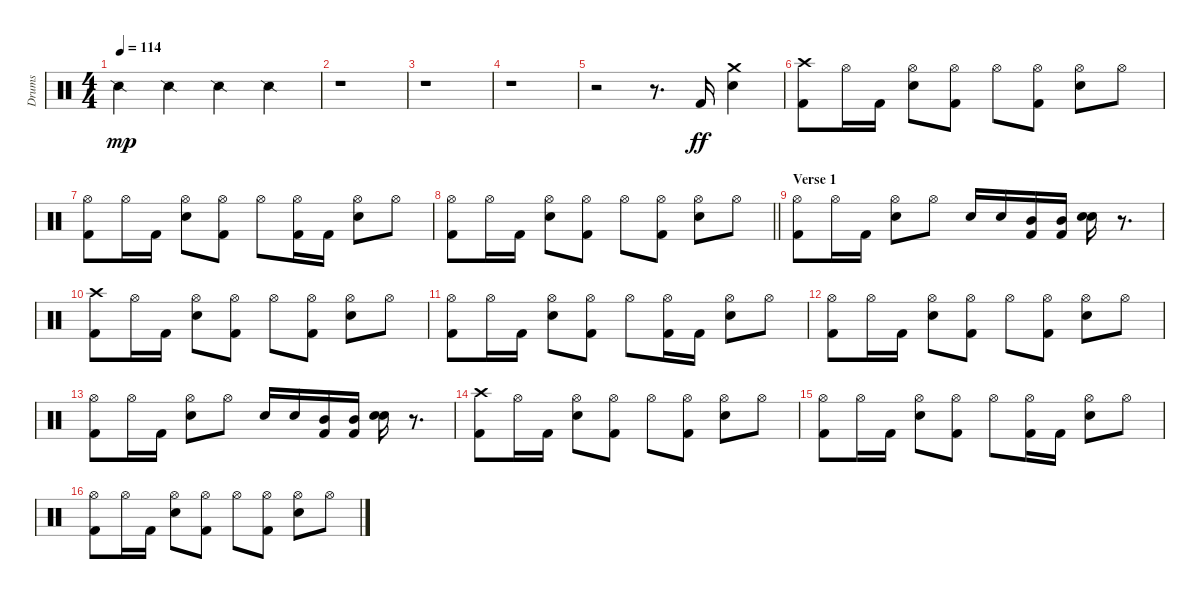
\track ("Drums               " "Drums     ") {instrument percussion}
\staff {score}
\articulation defaults
\ts (4 4)
\tempo 114
\clef neutral
\ks c "Snare (side stick) 2".4{dy mp} "Snare (side stick) 2".4 "Snare (side stick) 2".4 "Snare (side stick) 2".4
|
r.1 |
r.1 |
r.1 |
r.2 r.8{d} "Kick (hit) 2".16{dy ff} ("Electric Snare (hit)" "Crash medium (hit)").4 |
("Kick (hit) 2" "Crash high (hit)").8 "Hi-Hat (open)".16 "Kick (hit) 2".16 ("Hi-Hat (open)" "Electric Snare (hit)").8 ("Kick (hit) 2" "Hi-Hat (open)").8 "Hi-Hat (open)".8 ("Kick (hit) 2" "Hi-Hat (open)").8 ("Hi-Hat (open)" "Electric Snare (hit)").8 "Hi-Hat (open)".8 |
("Kick (hit) 2" "Hi-Hat (open)").8 "Hi-Hat (open)".16 "Kick (hit) 2".16 ("Hi-Hat (open)" "Electric Snare (hit)").8 ("Kick (hit) 2" "Hi-Hat (open)").8 "Hi-Hat (open)".8 ("Kick (hit) 2" "Hi-Hat (open)").16 "Kick (hit) 2".16 ("Hi-Hat (open)" "Electric Snare (hit)").8 "Hi-Hat (open)".8 |
\barLineRight lightlight
("Kick (hit) 2" "Hi-Hat (open)").8 "Hi-Hat (open)".16 "Kick (hit) 2".16 ("Hi-Hat (open)" "Electric Snare (hit)").8 ("Kick (hit) 2" "Hi-Hat (open)").8 "Hi-Hat (open)".8 ("Kick (hit) 2" "Hi-Hat (open)").8 ("Hi-Hat (open)" "Electric Snare (hit)").8 "Hi-Hat (open)".8 |
\section ("" "Verse 1")
("Kick (hit) 2" "Hi-Hat (open)").8 "Hi-Hat (open)".16 "Kick (hit) 2".16 ("Hi-Hat (open)" "Electric Snare (hit)").8 "Hi-Hat (open)".8 "Electric Snare (hit)".16 "Electric Snare (hit)".16 ("Kick (hit) 2" "Mid Tom (hit)").16 ("Kick (hit) 2" "Mid Tom (hit)").16 ("Metronome (bell)" "Electric Snare (hit)").16 r.8{d} |
("Kick (hit) 2" "Crash high (hit)").8 "Hi-Hat (open)".16 "Kick (hit) 2".16 ("Hi-Hat (open)" "Electric Snare (hit)").8 ("Kick (hit) 2" "Hi-Hat (open)").8 "Hi-Hat (open)".8 ("Kick (hit) 2" "Hi-Hat (open)").8 ("Hi-Hat (open)" "Electric Snare (hit)").8 "Hi-Hat (open)".8 |
("Kick (hit) 2" "Hi-Hat (open)").8 "Hi-Hat (open)".16 "Kick (hit) 2".16 ("Hi-Hat (open)" "Electric Snare (hit)").8 ("Kick (hit) 2" "Hi-Hat (open)").8 "Hi-Hat (open)".8 ("Kick (hit) 2" "Hi-Hat (open)").16 "Kick (hit) 2".16 ("Hi-Hat (open)" "Electric Snare (hit)").8 "Hi-Hat (open)".8 |
("Kick (hit) 2" "Hi-Hat (open)").8 "Hi-Hat (open)".16 "Kick (hit) 2".16 ("Hi-Hat (open)" "Electric Snare (hit)").8 ("Kick (hit) 2" "Hi-Hat (open)").8 "Hi-Hat (open)".8 ("Kick (hit) 2" "Hi-Hat (open)").8 ("Hi-Hat (open)" "Electric Snare (hit)").8 "Hi-Hat (open)".8 |
("Kick (hit) 2" "Hi-Hat (open)").8 "Hi-Hat (open)".16 "Kick (hit) 2".16 ("Hi-Hat (open)" "Electric Snare (hit)").8 "Hi-Hat (open)".8 "Electric Snare (hit)".16 "Electric Snare (hit)".16 ("Kick (hit) 2" "Mid Tom (hit)").16 ("Kick (hit) 2" "Mid Tom (hit)").16 ("Metronome (bell)" "Electric Snare (hit)").16 r.8{d} |
("Kick (hit) 2" "Crash high (hit)").8 "Hi-Hat (open)".16 "Kick (hit) 2".16 ("Hi-Hat (open)" "Electric Snare (hit)").8 ("Kick (hit) 2" "Hi-Hat (open)").8 "Hi-Hat (open)".8 ("Kick (hit) 2" "Hi-Hat (open)").8 ("Hi-Hat (open)" "Electric Snare (hit)").8 "Hi-Hat (open)".8 |
("Kick (hit) 2" "Hi-Hat (open)").8 "Hi-Hat (open)".16 "Kick (hit) 2".16 ("Hi-Hat (open)" "Electric Snare (hit)").8 ("Kick (hit) 2" "Hi-Hat (open)").8 "Hi-Hat (open)".8 ("Kick (hit) 2" "Hi-Hat (open)").16 "Kick (hit) 2".16 ("Hi-Hat (open)" "Electric Snare (hit)").8 "Hi-Hat (open)".8 |
("Kick (hit) 2" "Hi-Hat (open)").8 "Hi-Hat (open)".16 "Kick (hit) 2".16 ("Hi-Hat (open)" "Electric Snare (hit)").8 ("Kick (hit) 2" "Hi-Hat (open)").8 "Hi-Hat (open)".8 ("Kick (hit) 2" "Hi-Hat (open)").8 ("Hi-Hat (open)" "Electric Snare (hit)").8 "Hi-Hat (open)".8
